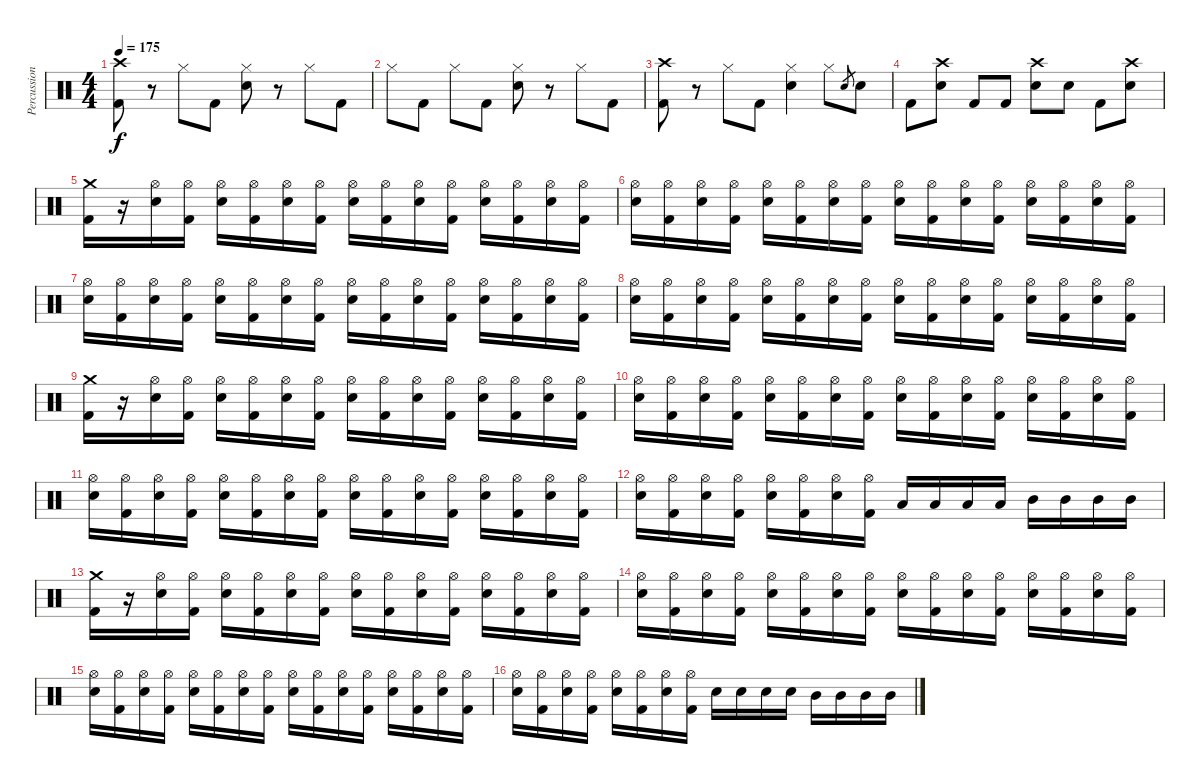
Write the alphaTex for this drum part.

\track ("Percussion" "Percussion") {instrument percussion}
\staff {score}
\articulation defaults
\ts (4 4)
\tempo 175
\clef neutral
\ks c
("Kick (hit) 2" "Crash high (hit)").8{dy f} r.8 "Hi-Hat (closed)".8 "Kick (hit) 2".8 ("Electric Snare (hit)" "Hi-Hat (closed)").8 r.8 "Hi-Hat (closed)".8 "Kick (hit) 2".8 |
"Hi-Hat (closed)".8 "Kick (hit) 2".8 "Hi-Hat (closed)".8 "Kick (hit) 2".8 ("Electric Snare (hit)" "Hi-Hat (closed)").8 r.8 "Hi-Hat (closed)".8 "Kick (hit) 2".8 |
("Kick (hit) 2" "Crash high (hit)").8 r.8 "Hi-Hat (closed)".8 "Kick (hit) 2".8 ("Electric Snare (hit)" "Hi-Hat (closed)").4 "Hi-Hat (closed)".8 "Electric Snare (hit)".8{gr} "Electric Snare (hit)".8 |
"Kick (hit) 2".8 ("Electric Snare (hit)" "Crash high (hit)").8 "Kick (hit) 2".8 "Kick (hit) 2".8 ("Electric Snare (hit)" "Crash high (hit)").8 "Electric Snare (hit)".8 "Kick (hit) 2".8 ("Electric Snare (hit)" "Crash high (hit)").8 |
("Kick (hit) 2" "Crash medium (hit)").16 r.16 ("Electric Snare (hit)" "Hi-Hat (open)").16 ("Kick (hit) 2" "Hi-Hat (open)").16 ("Electric Snare (hit)" "Hi-Hat (open)").16 ("Kick (hit) 2" "Hi-Hat (open)").16 ("Electric Snare (hit)" "Hi-Hat (open)").16 ("Kick (hit) 2" "Hi-Hat (open)").16 ("Electric Snare (hit)" "Hi-Hat (open)").16 ("Kick (hit) 2" "Hi-Hat (open)").16 ("Electric Snare (hit)" "Hi-Hat (open)").16 ("Kick (hit) 2" "Hi-Hat (open)").16 ("Electric Snare (hit)" "Hi-Hat (open)").16 ("Kick (hit) 2" "Hi-Hat (open)").16 ("Electric Snare (hit)" "Hi-Hat (open)").16 ("Kick (hit) 2" "Hi-Hat (open)").16 |
("Electric Snare (hit)" "Hi-Hat (open)").16 ("Kick (hit) 2" "Hi-Hat (open)").16 ("Electric Snare (hit)" "Hi-Hat (open)").16 ("Kick (hit) 2" "Hi-Hat (open)").16 ("Electric Snare (hit)" "Hi-Hat (open)").16 ("Kick (hit) 2" "Hi-Hat (open)").16 ("Electric Snare (hit)" "Hi-Hat (open)").16 ("Kick (hit) 2" "Hi-Hat (open)").16 ("Electric Snare (hit)" "Hi-Hat (open)").16 ("Kick (hit) 2" "Hi-Hat (open)").16 ("Electric Snare (hit)" "Hi-Hat (open)").16 ("Kick (hit) 2" "Hi-Hat (open)").16 ("Electric Snare (hit)" "Hi-Hat (open)").16 ("Kick (hit) 2" "Hi-Hat (open)").16 ("Electric Snare (hit)" "Hi-Hat (open)").16 ("Kick (hit) 2" "Hi-Hat (open)").16 |
("Electric Snare (hit)" "Hi-Hat (open)").16 ("Kick (hit) 2" "Hi-Hat (open)").16 ("Electric Snare (hit)" "Hi-Hat (open)").16 ("Kick (hit) 2" "Hi-Hat (open)").16 ("Electric Snare (hit)" "Hi-Hat (open)").16 ("Kick (hit) 2" "Hi-Hat (open)").16 ("Electric Snare (hit)" "Hi-Hat (open)").16 ("Kick (hit) 2" "Hi-Hat (open)").16 ("Electric Snare (hit)" "Hi-Hat (open)").16 ("Kick (hit) 2" "Hi-Hat (open)").16 ("Electric Snare (hit)" "Hi-Hat (open)").16 ("Kick (hit) 2" "Hi-Hat (open)").16 ("Electric Snare (hit)" "Hi-Hat (open)").16 ("Kick (hit) 2" "Hi-Hat (open)").16 ("Electric Snare (hit)" "Hi-Hat (open)").16 ("Kick (hit) 2" "Hi-Hat (open)").16 |
("Electric Snare (hit)" "Hi-Hat (open)").16 ("Kick (hit) 2" "Hi-Hat (open)").16 ("Electric Snare (hit)" "Hi-Hat (open)").16 ("Kick (hit) 2" "Hi-Hat (open)").16 ("Electric Snare (hit)" "Hi-Hat (open)").16 ("Kick (hit) 2" "Hi-Hat (open)").16 ("Electric Snare (hit)" "Hi-Hat (open)").16 ("Kick (hit) 2" "Hi-Hat (open)").16 ("Electric Snare (hit)" "Hi-Hat (open)").16 ("Kick (hit) 2" "Hi-Hat (open)").16 ("Electric Snare (hit)" "Hi-Hat (open)").16 ("Kick (hit) 2" "Hi-Hat (open)").16 ("Electric Snare (hit)" "Hi-Hat (open)").16 ("Kick (hit) 2" "Hi-Hat (open)").16 ("Electric Snare (hit)" "Hi-Hat (open)").16 ("Kick (hit) 2" "Hi-Hat (open)").16 |
("Kick (hit) 2" "Crash medium (hit)").16 r.16 ("Electric Snare (hit)" "Hi-Hat (open)").16 ("Kick (hit) 2" "Hi-Hat (open)").16 ("Electric Snare (hit)" "Hi-Hat (open)").16 ("Kick (hit) 2" "Hi-Hat (open)").16 ("Electric Snare (hit)" "Hi-Hat (open)").16 ("Kick (hit) 2" "Hi-Hat (open)").16 ("Electric Snare (hit)" "Hi-Hat (open)").16 ("Kick (hit) 2" "Hi-Hat (open)").16 ("Electric Snare (hit)" "Hi-Hat (open)").16 ("Kick (hit) 2" "Hi-Hat (open)").16 ("Electric Snare (hit)" "Hi-Hat (open)").16 ("Kick (hit) 2" "Hi-Hat (open)").16 ("Electric Snare (hit)" "Hi-Hat (open)").16 ("Kick (hit) 2" "Hi-Hat (open)").16 |
("Electric Snare (hit)" "Hi-Hat (open)").16 ("Kick (hit) 2" "Hi-Hat (open)").16 ("Electric Snare (hit)" "Hi-Hat (open)").16 ("Kick (hit) 2" "Hi-Hat (open)").16 ("Electric Snare (hit)" "Hi-Hat (open)").16 ("Kick (hit) 2" "Hi-Hat (open)").16 ("Electric Snare (hit)" "Hi-Hat (open)").16 ("Kick (hit) 2" "Hi-Hat (open)").16 ("Electric Snare (hit)" "Hi-Hat (open)").16 ("Kick (hit) 2" "Hi-Hat (open)").16 ("Electric Snare (hit)" "Hi-Hat (open)").16 ("Kick (hit) 2" "Hi-Hat (open)").16 ("Electric Snare (hit)" "Hi-Hat (open)").16 ("Kick (hit) 2" "Hi-Hat (open)").16 ("Electric Snare (hit)" "Hi-Hat (open)").16 ("Kick (hit) 2" "Hi-Hat (open)").16 |
("Electric Snare (hit)" "Hi-Hat (open)").16 ("Kick (hit) 2" "Hi-Hat (open)").16 ("Electric Snare (hit)" "Hi-Hat (open)").16 ("Kick (hit) 2" "Hi-Hat (open)").16 ("Electric Snare (hit)" "Hi-Hat (open)").16 ("Kick (hit) 2" "Hi-Hat (open)").16 ("Electric Snare (hit)" "Hi-Hat (open)").16 ("Kick (hit) 2" "Hi-Hat (open)").16 ("Electric Snare (hit)" "Hi-Hat (open)").16 ("Kick (hit) 2" "Hi-Hat (open)").16 ("Electric Snare (hit)" "Hi-Hat (open)").16 ("Kick (hit) 2" "Hi-Hat (open)").16 ("Electric Snare (hit)" "Hi-Hat (open)").16 ("Kick (hit) 2" "Hi-Hat (open)").16 ("Electric Snare (hit)" "Hi-Hat (open)").16 ("Kick (hit) 2" "Hi-Hat (open)").16 |
("Electric Snare (hit)" "Hi-Hat (open)").16 ("Kick (hit) 2" "Hi-Hat (open)").16 ("Electric Snare (hit)" "Hi-Hat (open)").16 ("Kick (hit) 2" "Hi-Hat (open)").16 ("Electric Snare (hit)" "Hi-Hat (open)").16 ("Kick (hit) 2" "Hi-Hat (open)").16 ("Electric Snare (hit)" "Hi-Hat (open)").16 ("Kick (hit) 2" "Hi-Hat (open)").16 "Low Tom (hit)".16 "Low Tom (hit)".16 "Low Tom (hit)".16 "Low Tom (hit)".16 "Mid Tom (hit)".16 "Mid Tom (hit)".16 "Mid Tom (hit)".16 "Mid Tom (hit)".16 |
("Kick (hit) 2" "Crash medium (hit)").16 r.16 ("Electric Snare (hit)" "Hi-Hat (open)").16 ("Kick (hit) 2" "Hi-Hat (open)").16 ("Electric Snare (hit)" "Hi-Hat (open)").16 ("Kick (hit) 2" "Hi-Hat (open)").16 ("Electric Snare (hit)" "Hi-Hat (open)").16 ("Kick (hit) 2" "Hi-Hat (open)").16 ("Electric Snare (hit)" "Hi-Hat (open)").16 ("Kick (hit) 2" "Hi-Hat (open)").16 ("Electric Snare (hit)" "Hi-Hat (open)").16 ("Kick (hit) 2" "Hi-Hat (open)").16 ("Electric Snare (hit)" "Hi-Hat (open)").16 ("Kick (hit) 2" "Hi-Hat (open)").16 ("Electric Snare (hit)" "Hi-Hat (open)").16 ("Kick (hit) 2" "Hi-Hat (open)").16 |
("Electric Snare (hit)" "Hi-Hat (open)").16 ("Kick (hit) 2" "Hi-Hat (open)").16 ("Electric Snare (hit)" "Hi-Hat (open)").16 ("Kick (hit) 2" "Hi-Hat (open)").16 ("Electric Snare (hit)" "Hi-Hat (open)").16 ("Kick (hit) 2" "Hi-Hat (open)").16 ("Electric Snare (hit)" "Hi-Hat (open)").16 ("Kick (hit) 2" "Hi-Hat (open)").16 ("Electric Snare (hit)" "Hi-Hat (open)").16 ("Kick (hit) 2" "Hi-Hat (open)").16 ("Electric Snare (hit)" "Hi-Hat (open)").16 ("Kick (hit) 2" "Hi-Hat (open)").16 ("Electric Snare (hit)" "Hi-Hat (open)").16 ("Kick (hit) 2" "Hi-Hat (open)").16 ("Electric Snare (hit)" "Hi-Hat (open)").16 ("Kick (hit) 2" "Hi-Hat (open)").16 |
("Electric Snare (hit)" "Hi-Hat (open)").16 ("Kick (hit) 2" "Hi-Hat (open)").16 ("Electric Snare (hit)" "Hi-Hat (open)").16 ("Kick (hit) 2" "Hi-Hat (open)").16 ("Electric Snare (hit)" "Hi-Hat (open)").16 ("Kick (hit) 2" "Hi-Hat (open)").16 ("Electric Snare (hit)" "Hi-Hat (open)").16 ("Kick (hit) 2" "Hi-Hat (open)").16 ("Electric Snare (hit)" "Hi-Hat (open)").16 ("Kick (hit) 2" "Hi-Hat (open)").16 ("Electric Snare (hit)" "Hi-Hat (open)").16 ("Kick (hit) 2" "Hi-Hat (open)").16 ("Electric Snare (hit)" "Hi-Hat (open)").16 ("Kick (hit) 2" "Hi-Hat (open)").16 ("Electric Snare (hit)" "Hi-Hat (open)").16 ("Kick (hit) 2" "Hi-Hat (open)").16 |
("Electric Snare (hit)" "Hi-Hat (open)").16 ("Kick (hit) 2" "Hi-Hat (open)").16 ("Electric Snare (hit)" "Hi-Hat (open)").16 ("Kick (hit) 2" "Hi-Hat (open)").16 ("Electric Snare (hit)" "Hi-Hat (open)").16 ("Kick (hit) 2" "Hi-Hat (open)").16 ("Electric Snare (hit)" "Hi-Hat (open)").16 ("Kick (hit) 2" "Hi-Hat (open)").16 "Electric Snare (hit)".16 "Electric Snare (hit)".16 "Electric Snare (hit)".16 "Electric Snare (hit)".16 "Mid Tom (hit)".16 "Mid Tom (hit)".16 "Mid Tom (hit)".16 "Mid Tom (hit)".16
